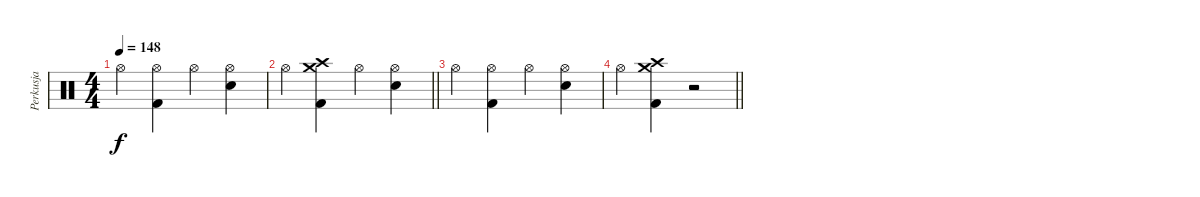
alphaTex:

\track ("Perkusja" "Perkusja") {instrument percussion}
\staff {score}
\articulation defaults
\ts (4 4)
\tempo 148
\clef neutral
\ks c "Hi-Hat (open)".4{dy f}
("Hi-Hat (open)" "Kick (hit) 2").4 "Hi-Hat (open)".4 ("Hi-Hat (open)" "Snare (hit) 2").4 |
\barLineRight lightlight "Hi-Hat (open)".4
("Crash high (hit)" "Crash medium (hit)" "Kick (hit) 2").4 "Hi-Hat (open)".4 ("Hi-Hat (open)" "Snare (hit) 2").4 |
"Hi-Hat (open)".4 ("Hi-Hat (open)" "Kick (hit) 2").4 "Hi-Hat (open)".4 ("Hi-Hat (open)" "Snare (hit) 2").4 |
\barLineRight lightlight "Hi-Hat (open)".4
("Crash high (hit)" "Crash medium (hit)" "Kick (hit) 2").4 r.2
